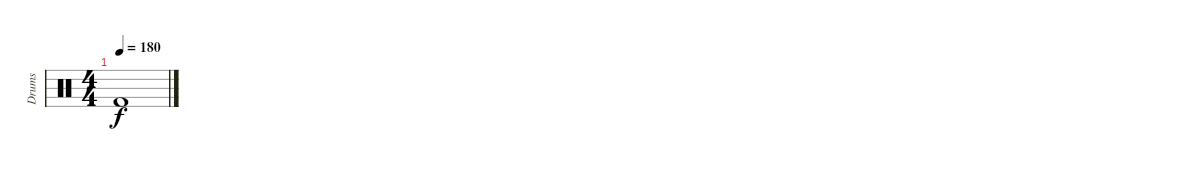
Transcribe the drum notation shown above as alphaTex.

\track ("Drums" "Drums") {instrument percussion}
\staff {score}
\articulation defaults
\ts (4 4)
\tempo 180
\clef neutral
\ks c "Kick (hit) 2".1{dy f}
